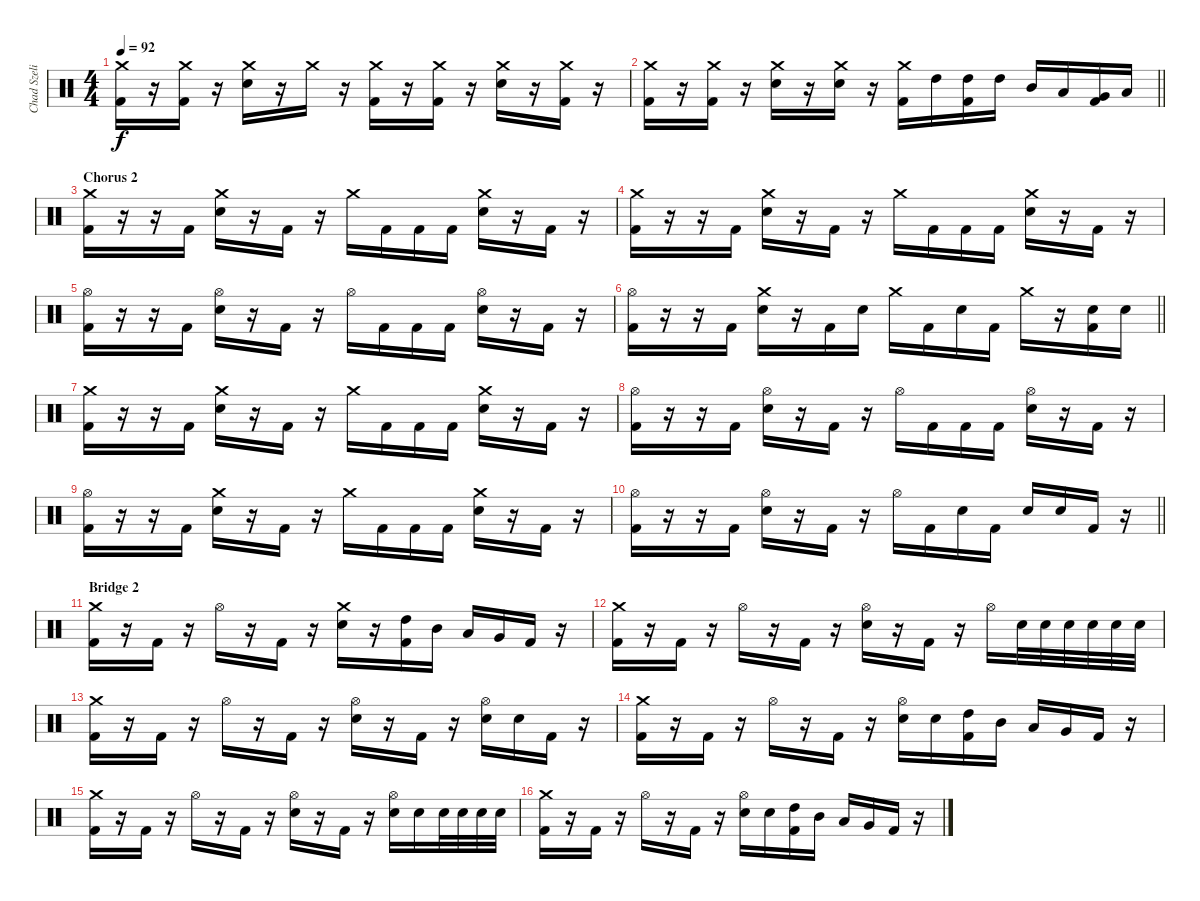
\track ("Chad Szeliga" "Chad Szeli") {instrument percussion}
\staff {score}
\articulation defaults
\ts (4 4)
\tempo 92
\clef neutral
\ks c
("Crash medium (hit)" "Kick (hit) 2").16{dy f} r.16 ("Crash medium (hit)" "Kick (hit) 2").16 r.16 ("Crash medium (hit)" "Electric Snare (hit)").16 r.16 "Crash medium (hit)".16 r.16 ("Crash medium (hit)" "Kick (hit) 2").16 r.16 ("Crash medium (hit)" "Kick (hit) 2").16 r.16 ("Crash medium (hit)" "Electric Snare (hit)").16 r.16 ("Crash medium (hit)" "Kick (hit) 2").16 r.16 |
\barLineRight lightlight
("Crash medium (hit)" "Kick (hit) 2").16 r.16 ("Crash medium (hit)" "Kick (hit) 2").16 r.16 ("Crash medium (hit)" "Electric Snare (hit)").16 r.16 ("Crash medium (hit)" "Electric Snare (hit)").16 r.16 ("Crash medium (hit)" "Kick (hit) 2").16 "High Tom (hit)".16 ("High Tom (hit)" "Kick (hit) 2").16 "High Tom (hit)".16 "Mid Tom (hit)".16 "Low Tom (hit)".16 ("Very Low Tom (hit)" "Kick (hit) 2").16 "Low Floor Tom (hit)".16 |
\section ("" "Chorus 2")
("Crash medium (hit)" "Kick (hit) 2").16 r.16 r.16 "Kick (hit) 2".16 ("Crash medium (hit)" "Electric Snare (hit)").16 r.16 "Kick (hit) 2".16 r.16 "Crash medium (hit)".16 "Kick (hit) 2".16 "Kick (hit) 2".16 "Kick (hit) 2".16 ("Crash medium (hit)" "Electric Snare (hit)").16 r.16 "Kick (hit) 2".16 r.16 |
("Crash medium (hit)" "Kick (hit) 2").16 r.16 r.16 "Kick (hit) 2".16 ("Crash medium (hit)" "Electric Snare (hit)").16 r.16 "Kick (hit) 2".16 r.16 "Crash medium (hit)".16 "Kick (hit) 2".16 "Kick (hit) 2".16 "Kick (hit) 2".16 ("Crash medium (hit)" "Electric Snare (hit)").16 r.16 "Kick (hit) 2".16 r.16 |
("Hi-Hat (open)" "Kick (hit) 2").16 r.16 r.16 "Kick (hit) 2".16 ("Hi-Hat (open)" "Electric Snare (hit)").16 r.16 "Kick (hit) 2".16 r.16 "Hi-Hat (open)".16 "Kick (hit) 2".16 "Kick (hit) 2".16 "Kick (hit) 2".16 ("Hi-Hat (open)" "Electric Snare (hit)").16 r.16 "Kick (hit) 2".16 r.16 |
\barLineRight lightlight
("Hi-Hat (open)" "Kick (hit) 2").16 r.16 r.16 "Kick (hit) 2".16 ("Crash medium (hit)" "Electric Snare (hit)").16 r.16 "Kick (hit) 2".16 "Electric Snare (hit)".16 "Crash medium (hit)".16 "Kick (hit) 2".16 "Electric Snare (hit)".16 "Kick (hit) 2".16 "Crash medium (hit)".16 r.16 ("Electric Snare (hit)" "Kick (hit) 2").16 "Electric Snare (hit)".16 |
("Crash medium (hit)" "Kick (hit) 2").16 r.16 r.16 "Kick (hit) 2".16 ("Crash medium (hit)" "Electric Snare (hit)").16 r.16 "Kick (hit) 2".16 r.16 "Crash medium (hit)".16 "Kick (hit) 2".16 "Kick (hit) 2".16 "Kick (hit) 2".16 ("Crash medium (hit)" "Electric Snare (hit)").16 r.16 "Kick (hit) 2".16 r.16 |
("Hi-Hat (open)" "Kick (hit) 2").16 r.16 r.16 "Kick (hit) 2".16 ("Hi-Hat (open)" "Electric Snare (hit)").16 r.16 "Kick (hit) 2".16 r.16 "Hi-Hat (open)".16 "Kick (hit) 2".16 "Kick (hit) 2".16 "Kick (hit) 2".16 ("Hi-Hat (open)" "Electric Snare (hit)").16 r.16 "Kick (hit) 2".16 r.16 |
("Hi-Hat (open)" "Kick (hit) 2").16 r.16 r.16 "Kick (hit) 2".16 ("Crash medium (hit)" "Electric Snare (hit)").16 r.16 "Kick (hit) 2".16 r.16 "Crash medium (hit)".16 "Kick (hit) 2".16 "Kick (hit) 2".16 "Kick (hit) 2".16 ("Crash medium (hit)" "Electric Snare (hit)").16 r.16 "Kick (hit) 2".16 r.16 |
\barLineRight lightlight
("Hi-Hat (open)" "Kick (hit) 2").16 r.16 r.16 "Kick (hit) 2".16 ("Hi-Hat (open)" "Electric Snare (hit)").16 r.16 "Kick (hit) 2".16 r.16 "Hi-Hat (open)".16 "Kick (hit) 2".16 "Electric Snare (hit)".16 "Kick (hit) 2".16 "Electric Snare (hit)".16 "Electric Snare (hit)".16 "Kick (hit) 2".16 r.16 |
\section ("" "Bridge 2")
("Crash medium (hit)" "Kick (hit) 2").16 r.16 "Kick (hit) 2".16 r.16 "Hi-Hat (open)".16 r.16 "Kick (hit) 2".16 r.16 ("Crash medium (hit)" "Electric Snare (hit)").16 r.16 ("High Tom (hit)" "Kick (hit) 2").16 "Mid Tom (hit)".16 "Low Tom (hit)".16 "Very Low Tom (hit)".16 "Kick (hit) 2".16 r.16 |
("Crash medium (hit)" "Kick (hit) 2").16 r.16 "Kick (hit) 2".16 r.16 "Hi-Hat (open)".16 r.16 "Kick (hit) 2".16 r.16 ("Hi-Hat (open)" "Electric Snare (hit)").16 r.16 "Kick (hit) 2".16 r.16 "Hi-Hat (open)".16 "Electric Snare (hit)".32 "Electric Snare (hit)".32 "Electric Snare (hit)".32 "Electric Snare (hit)".32 "Electric Snare (hit)".32 "Electric Snare (hit)".32 |
("Crash medium (hit)" "Kick (hit) 2").16 r.16 "Kick (hit) 2".16 r.16 "Hi-Hat (open)".16 r.16 "Kick (hit) 2".16 r.16 ("Hi-Hat (open)" "Electric Snare (hit)").16 r.16 "Kick (hit) 2".16 r.16 ("Hi-Hat (open)" "Electric Snare (hit)").16 "Electric Snare (hit)".16 "Kick (hit) 2".16 r.16 |
("Crash medium (hit)" "Kick (hit) 2").16 r.16 "Kick (hit) 2".16 r.16 "Hi-Hat (open)".16 r.16 "Kick (hit) 2".16 r.16 ("Hi-Hat (open)" "Electric Snare (hit)").16 "Electric Snare (hit)".16 ("High Tom (hit)" "Kick (hit) 2").16 "Mid Tom (hit)".16 "Low Tom (hit)".16 "Very Low Tom (hit)".16 "Kick (hit) 2".16 r.16 |
("Crash medium (hit)" "Kick (hit) 2").16 r.16 "Kick (hit) 2".16 r.16 "Hi-Hat (open)".16 r.16 "Kick (hit) 2".16 r.16 ("Hi-Hat (open)" "Electric Snare (hit)").16 r.16 "Kick (hit) 2".16 r.16 ("Hi-Hat (open)" "Electric Snare (hit)").16 "Electric Snare (hit)".16 "Electric Snare (hit)".32 "Electric Snare (hit)".32 "Electric Snare (hit)".32 "Electric Snare (hit)".32 |
("Crash medium (hit)" "Kick (hit) 2").16 r.16 "Kick (hit) 2".16 r.16 "Hi-Hat (open)".16 r.16 "Kick (hit) 2".16 r.16 ("Hi-Hat (open)" "Electric Snare (hit)").16 "Electric Snare (hit)".16 ("High Tom (hit)" "Kick (hit) 2").16 "Mid Tom (hit)".16 "Low Tom (hit)".16 "Very Low Tom (hit)".16 "Kick (hit) 2".16 r.16
